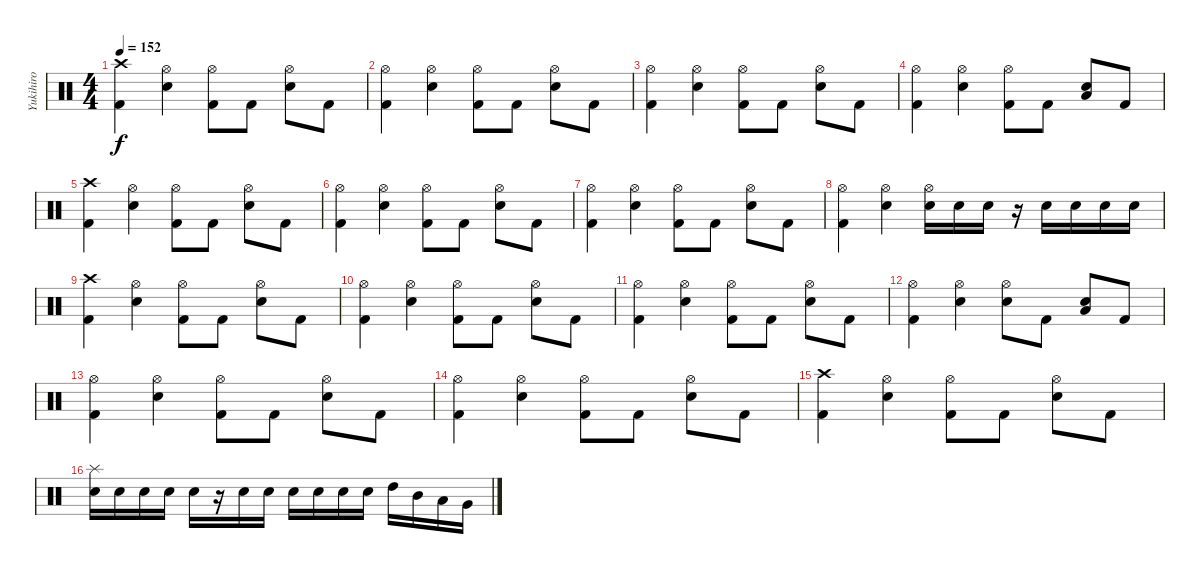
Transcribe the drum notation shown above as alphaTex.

\track ("Yukihiro" "Yukihiro") {instrument percussion}
\staff {score}
\articulation defaults
\ts (4 4)
\tempo 152
\clef neutral
\ks c
("Crash high (hit)" "Kick (hit) 2").4{dy f} ("Hi-Hat (open)" "Electric Snare (hit)").4 ("Hi-Hat (open)" "Kick (hit) 2").8 "Kick (hit) 2".8 ("Hi-Hat (open)" "Electric Snare (hit)").8 "Kick (hit) 2".8 |
("Hi-Hat (open)" "Kick (hit) 2").4 ("Hi-Hat (open)" "Electric Snare (hit)").4 ("Hi-Hat (open)" "Kick (hit) 2").8 "Kick (hit) 2".8 ("Hi-Hat (open)" "Electric Snare (hit)").8 "Kick (hit) 2".8 |
("Hi-Hat (open)" "Kick (hit) 2").4 ("Hi-Hat (open)" "Electric Snare (hit)").4 ("Hi-Hat (open)" "Kick (hit) 2").8 "Kick (hit) 2".8 ("Hi-Hat (open)" "Electric Snare (hit)").8 "Kick (hit) 2".8 |
("Hi-Hat (open)" "Kick (hit) 2").4 ("Hi-Hat (open)" "Electric Snare (hit)").4 ("Hi-Hat (open)" "Kick (hit) 2").8 "Kick (hit) 2".8 ("Low Tom (hit)" "Electric Snare (hit)").8 "Kick (hit) 2".8 |
("Crash high (hit)" "Kick (hit) 2").4 ("Hi-Hat (open)" "Electric Snare (hit)").4 ("Hi-Hat (open)" "Kick (hit) 2").8 "Kick (hit) 2".8 ("Hi-Hat (open)" "Electric Snare (hit)").8 "Kick (hit) 2".8 |
("Hi-Hat (open)" "Kick (hit) 2").4 ("Hi-Hat (open)" "Electric Snare (hit)").4 ("Hi-Hat (open)" "Kick (hit) 2").8 "Kick (hit) 2".8 ("Hi-Hat (open)" "Electric Snare (hit)").8 "Kick (hit) 2".8 |
("Hi-Hat (open)" "Kick (hit) 2").4 ("Hi-Hat (open)" "Electric Snare (hit)").4 ("Hi-Hat (open)" "Kick (hit) 2").8 "Kick (hit) 2".8 ("Hi-Hat (open)" "Electric Snare (hit)").8 "Kick (hit) 2".8 |
("Hi-Hat (open)" "Kick (hit) 2").4 ("Hi-Hat (open)" "Electric Snare (hit)").4 ("Hi-Hat (open)" "Electric Snare (hit)").16 "Electric Snare (hit)".16 "Electric Snare (hit)".16 r.16 "Electric Snare (hit)".16 "Electric Snare (hit)".16 "Electric Snare (hit)".16 "Electric Snare (hit)".16 |
("Crash high (hit)" "Kick (hit) 2").4 ("Hi-Hat (open)" "Electric Snare (hit)").4 ("Hi-Hat (open)" "Kick (hit) 2").8 "Kick (hit) 2".8 ("Hi-Hat (open)" "Electric Snare (hit)").8 "Kick (hit) 2".8 |
("Hi-Hat (open)" "Kick (hit) 2").4 ("Hi-Hat (open)" "Electric Snare (hit)").4 ("Hi-Hat (open)" "Kick (hit) 2").8 "Kick (hit) 2".8 ("Hi-Hat (open)" "Electric Snare (hit)").8 "Kick (hit) 2".8 |
("Hi-Hat (open)" "Kick (hit) 2").4 ("Hi-Hat (open)" "Electric Snare (hit)").4 ("Hi-Hat (open)" "Kick (hit) 2").8 "Kick (hit) 2".8 ("Hi-Hat (open)" "Electric Snare (hit)").8 "Kick (hit) 2".8 |
("Hi-Hat (open)" "Kick (hit) 2").4 ("Hi-Hat (open)" "Electric Snare (hit)").4 ("Hi-Hat (open)" "Electric Snare (hit)").8 "Kick (hit) 2".8 ("Low Tom (hit)" "Electric Snare (hit)").8 "Kick (hit) 2".8 |
("Hi-Hat (open)" "Kick (hit) 2").4 ("Hi-Hat (open)" "Electric Snare (hit)").4 ("Hi-Hat (open)" "Kick (hit) 2").8 "Kick (hit) 2".8 ("Hi-Hat (open)" "Electric Snare (hit)").8 "Kick (hit) 2".8 |
("Hi-Hat (open)" "Kick (hit) 2").4 ("Hi-Hat (open)" "Electric Snare (hit)").4 ("Hi-Hat (open)" "Kick (hit) 2").8 "Kick (hit) 2".8 ("Hi-Hat (open)" "Electric Snare (hit)").8 "Kick (hit) 2".8 |
("Crash high (hit)" "Kick (hit) 2").4 ("Hi-Hat (open)" "Electric Snare (hit)").4 ("Hi-Hat (open)" "Kick (hit) 2").8 "Kick (hit) 2".8 ("Hi-Hat (open)" "Electric Snare (hit)").8 "Kick (hit) 2".8 |
("Splash (hit)" "Electric Snare (hit)").16 "Electric Snare (hit)".16 "Electric Snare (hit)".16 "Electric Snare (hit)".16 "Electric Snare (hit)".16 r.16 "Electric Snare (hit)".16 "Electric Snare (hit)".16 "Electric Snare (hit)".16 "Electric Snare (hit)".16 "Electric Snare (hit)".16 "Electric Snare (hit)".16 "High Tom (hit)".16 "Mid Tom (hit)".16 "Low Tom (hit)".16 "Very Low Tom (hit)".16
